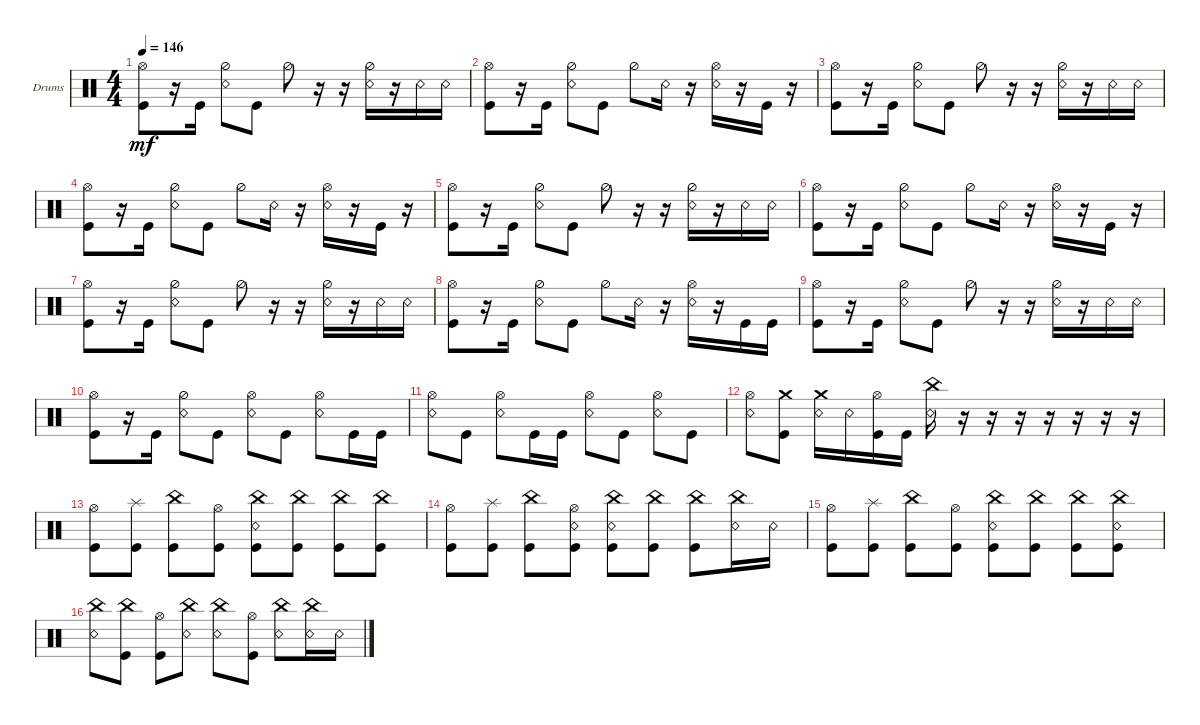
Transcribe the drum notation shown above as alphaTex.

\defaultSystemsLayout 4
\bracketExtendMode groupsimilarinstruments
\firstSystemTrackNameOrientation horizontal
\otherSystemsTrackNameOrientation horizontal
\track ("Drums" "Drums") {instrument percussion}
\staff {score}
\articulation defaults
\ts (4 4)
\tempo 146
\clef neutral
\ks c
("Hi-Hat (open)" "Kick (hit)").8{dy mf} r.16 "Kick (hit)".16 ("Snare (rim shot)" "Hi-Hat (half)").8 "Kick (hit)".8 "Hi-Hat (half)".8 r.16 r.16 ("Hi-Hat (half)" "Snare (rim shot)").16 r.16 "Snare (rim shot)".16 "Snare (rim shot)".16 |
("Hi-Hat (open)" "Kick (hit)").8 r.16 "Kick (hit)".16 ("Snare (rim shot)" "Hi-Hat (half)").8 "Kick (hit)".8 "Hi-Hat (half)".8 "Snare (rim shot)".16 r.16 ("Snare (rim shot)" "Hi-Hat (open)").16 r.16 "Kick (hit)".16 r.16 |
("Hi-Hat (open)" "Kick (hit)").8 r.16 "Kick (hit)".16 ("Snare (rim shot)" "Hi-Hat (half)").8 "Kick (hit)".8 "Hi-Hat (half)".8 r.16 r.16 ("Hi-Hat (half)" "Snare (rim shot)").16 r.16 "Snare (rim shot)".16 "Snare (rim shot)".16 |
("Hi-Hat (open)" "Kick (hit)").8 r.16 "Kick (hit)".16 ("Snare (rim shot)" "Hi-Hat (half)").8 "Kick (hit)".8 "Hi-Hat (half)".8 "Snare (rim shot)".16 r.16 ("Snare (rim shot)" "Hi-Hat (open)").16 r.16 "Kick (hit)".16 r.16 |
("Hi-Hat (open)" "Kick (hit)").8 r.16 "Kick (hit)".16 ("Snare (rim shot)" "Hi-Hat (half)").8 "Kick (hit)".8 "Hi-Hat (half)".8 r.16 r.16 ("Hi-Hat (half)" "Snare (rim shot)").16 r.16 "Snare (rim shot)".16 "Snare (rim shot)".16 |
("Hi-Hat (open)" "Kick (hit)").8 r.16 "Kick (hit)".16 ("Snare (rim shot)" "Hi-Hat (half)").8 "Kick (hit)".8 "Hi-Hat (half)".8 "Snare (rim shot)".16 r.16 ("Snare (rim shot)" "Hi-Hat (open)").16 r.16 "Kick (hit)".16 r.16 |
("Hi-Hat (open)" "Kick (hit)").8 r.16 "Kick (hit)".16 ("Snare (rim shot)" "Hi-Hat (half)").8 "Kick (hit)".8 "Hi-Hat (half)".8 r.16 r.16 ("Hi-Hat (half)" "Snare (rim shot)").16 r.16 "Snare (rim shot)".16 "Snare (rim shot)".16 |
("Hi-Hat (open)" "Kick (hit)").8 r.16 "Kick (hit)".16 ("Snare (rim shot)" "Hi-Hat (half)").8 "Kick (hit)".8 "Hi-Hat (half)".8 "Snare (rim shot)".16 r.16 ("Snare (rim shot)" "Hi-Hat (open)").16 r.16 "Kick (hit)".16 "Kick (hit)".16 |
("Hi-Hat (open)" "Kick (hit)").8 r.16 "Kick (hit)".16 ("Snare (rim shot)" "Hi-Hat (half)").8 "Kick (hit)".8 "Hi-Hat (half)".8 r.16 r.16 ("Hi-Hat (half)" "Snare (rim shot)").16 r.16 "Snare (rim shot)".16 "Snare (rim shot)".16 |
("Hi-Hat (open)" "Kick (hit)").8 r.16 "Kick (hit)".16 ("Snare (rim shot)" "Hi-Hat (half)").8 "Kick (hit)".8 ("Hi-Hat (open)" "Snare (rim shot)").8 "Kick (hit)".8 ("Snare (rim shot)" "Hi-Hat (open)").8 "Kick (hit)".16 "Kick (hit)".16 |
("Snare (rim shot)" "Hi-Hat (open)").8 "Kick (hit)".8 ("Snare (rim shot)" "Hi-Hat (open)").8 "Kick (hit)".16 "Kick (hit)".16 ("Snare (rim shot)" "Hi-Hat (open)").8 "Kick (hit)".8 ("Snare (rim shot)" "Hi-Hat (open)").8 "Kick (hit)".8 |
("Snare (rim shot)" "Hi-Hat (open)").8 ("Kick (hit)" "Crash medium (hit)").8 ("Snare (rim shot)" "Crash medium (hit)").16 "Snare (rim shot)".16 ("Hi-Hat (open)" "Kick (hit)").16 "Kick (hit)".16 ("Snare (rim shot)" "China (hit)").16 r.16 r.16 r.16 r.16 r.16 r.16 r.16 |
("Kick (hit)" "Hi-Hat (open)").8 ("Kick (hit)" "Splash (hit)").8 ("Kick (hit)" "China (hit)").8 ("Kick (hit)" "Hi-Hat (open)").8 ("Snare (rim shot)" "Kick (hit)" "China (hit)").8 ("Kick (hit)" "China (hit)").8 ("Kick (hit)" "China (hit)").8 ("Kick (hit)" "China (hit)").8 |
("Kick (hit)" "Hi-Hat (open)").8 ("Kick (hit)" "Splash (hit)").8 ("Kick (hit)" "China (hit)").8 ("Kick (hit)" "Hi-Hat (open)" "Snare (rim shot)").8 ("Snare (rim shot)" "Kick (hit)" "China (hit)").8 ("Kick (hit)" "China (hit)").8 ("Kick (hit)" "China (hit)").8 ("China (hit)" "Snare (rim shot)").16 "Snare (rim shot)".16 |
("Kick (hit)" "Hi-Hat (open)").8 ("Kick (hit)" "Splash (hit)").8 ("Kick (hit)" "China (hit)").8 ("Kick (hit)" "Hi-Hat (open)").8 ("Snare (rim shot)" "Kick (hit)" "China (hit)").8 ("Kick (hit)" "China (hit)").8 ("Kick (hit)" "China (hit)").8 ("Kick (hit)" "China (hit)" "Snare (rim shot)").8 |
("Snare (rim shot)" "China (hit)").8 ("Kick (hit)" "China (hit)").8 ("Kick (hit)" "Hi-Hat (open)").8 ("Snare (rim shot)" "China (hit)").8 ("Snare (rim shot)" "China (hit)").8 ("Kick (hit)" "Hi-Hat (open)").8 ("Snare (rim shot)" "China (hit)").8 ("Snare (rim shot)" "China (hit)").16 "Snare (rim shot)".16
